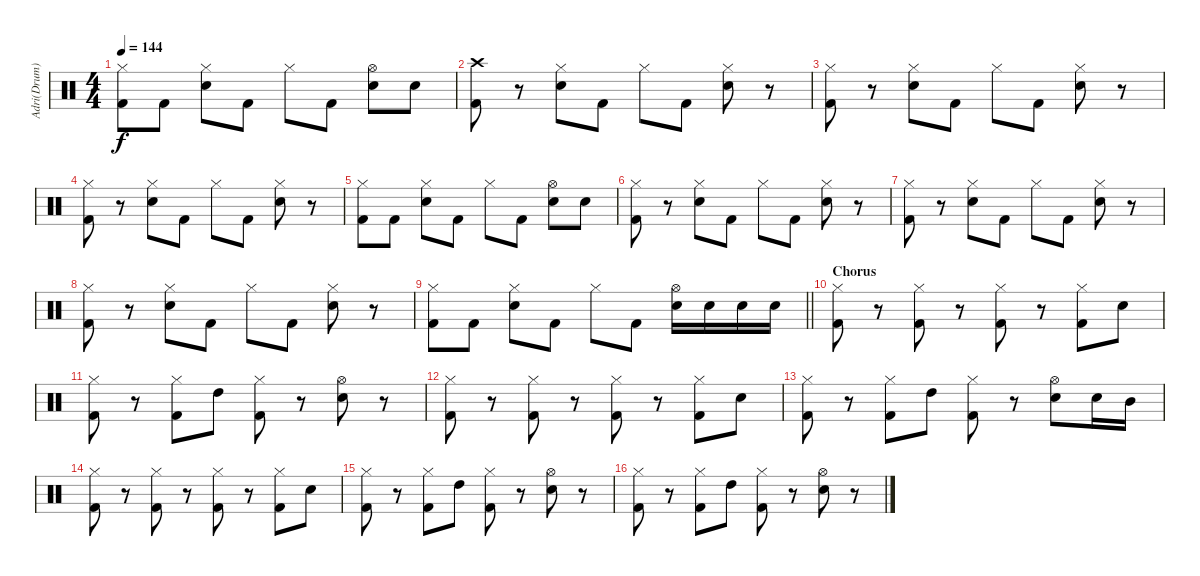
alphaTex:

\track ("Adri(Drum)" "Adri(Drum)") {instrument percussion}
\staff {score}
\articulation defaults
\ts (4 4)
\tempo 144
\clef neutral
\ks c
("Hi-Hat (closed)" "Kick (hit) 2").8{dy f} "Kick (hit) 2".8 ("Hi-Hat (closed)" "Electric Snare (hit)").8 "Kick (hit) 2".8 "Hi-Hat (closed)".8 "Kick (hit) 2".8 ("Hi-Hat (open)" "Electric Snare (hit)").8 "Electric Snare (hit)".8 |
("Crash high (hit)" "Kick (hit) 2").8 r.8 ("Hi-Hat (closed)" "Electric Snare (hit)").8 "Kick (hit) 2".8 "Hi-Hat (closed)".8 "Kick (hit) 2".8 ("Hi-Hat (closed)" "Electric Snare (hit)").8 r.8 |
("Hi-Hat (closed)" "Kick (hit) 2").8 r.8 ("Hi-Hat (closed)" "Electric Snare (hit)").8 "Kick (hit) 2".8 "Hi-Hat (closed)".8 "Kick (hit) 2".8 ("Hi-Hat (closed)" "Electric Snare (hit)").8 r.8 |
("Hi-Hat (closed)" "Kick (hit) 2").8 r.8 ("Hi-Hat (closed)" "Electric Snare (hit)").8 "Kick (hit) 2".8 "Hi-Hat (closed)".8 "Kick (hit) 2".8 ("Hi-Hat (closed)" "Electric Snare (hit)").8 r.8 |
("Hi-Hat (closed)" "Kick (hit) 2").8 "Kick (hit) 2".8 ("Hi-Hat (closed)" "Electric Snare (hit)").8 "Kick (hit) 2".8 "Hi-Hat (closed)".8 "Kick (hit) 2".8 ("Hi-Hat (open)" "Electric Snare (hit)").8 "Electric Snare (hit)".8 |
("Hi-Hat (closed)" "Kick (hit) 2").8 r.8 ("Hi-Hat (closed)" "Electric Snare (hit)").8 "Kick (hit) 2".8 "Hi-Hat (closed)".8 "Kick (hit) 2".8 ("Hi-Hat (closed)" "Electric Snare (hit)").8 r.8 |
("Hi-Hat (closed)" "Kick (hit) 2").8 r.8 ("Hi-Hat (closed)" "Electric Snare (hit)").8 "Kick (hit) 2".8 "Hi-Hat (closed)".8 "Kick (hit) 2".8 ("Hi-Hat (closed)" "Electric Snare (hit)").8 r.8 |
("Hi-Hat (closed)" "Kick (hit) 2").8 r.8 ("Hi-Hat (closed)" "Electric Snare (hit)").8 "Kick (hit) 2".8 "Hi-Hat (closed)".8 "Kick (hit) 2".8 ("Hi-Hat (closed)" "Electric Snare (hit)").8 r.8 |
\barLineRight lightlight
("Hi-Hat (closed)" "Kick (hit) 2").8 "Kick (hit) 2".8 ("Hi-Hat (closed)" "Electric Snare (hit)").8 "Kick (hit) 2".8 "Hi-Hat (closed)".8 "Kick (hit) 2".8 ("Hi-Hat (open)" "Electric Snare (hit)").16 "Electric Snare (hit)".16 "Electric Snare (hit)".16 "Electric Snare (hit)".16 |
\section ("" "Chorus")
("Hi-Hat (closed)" "Kick (hit) 2").8 r.8 ("Hi-Hat (closed)" "Kick (hit) 2").8 r.8 ("Hi-Hat (closed)" "Kick (hit) 2").8 r.8 ("Hi-Hat (closed)" "Kick (hit) 2").8 "Electric Snare (hit)".8 |
("Hi-Hat (closed)" "Kick (hit) 2").8 r.8 ("Hi-Hat (closed)" "Kick (hit) 2").8 "High Tom (hit)".8 ("Hi-Hat (closed)" "Kick (hit) 2").8 r.8 ("Hi-Hat (open)" "Electric Snare (hit)").8 r.8 |
("Hi-Hat (closed)" "Kick (hit) 2").8 r.8 ("Hi-Hat (closed)" "Kick (hit) 2").8 r.8 ("Hi-Hat (closed)" "Kick (hit) 2").8 r.8 ("Hi-Hat (closed)" "Kick (hit) 2").8 "Electric Snare (hit)".8 |
("Hi-Hat (closed)" "Kick (hit) 2").8 r.8 ("Hi-Hat (closed)" "Kick (hit) 2").8 "High Tom (hit)".8 ("Hi-Hat (closed)" "Kick (hit) 2").8 r.8 ("Hi-Hat (open)" "Electric Snare (hit)").8 "Electric Snare (hit)".16 "Mid Tom (hit)".16 |
("Hi-Hat (closed)" "Kick (hit) 2").8 r.8 ("Hi-Hat (closed)" "Kick (hit) 2").8 r.8 ("Hi-Hat (closed)" "Kick (hit) 2").8 r.8 ("Hi-Hat (closed)" "Kick (hit) 2").8 "Electric Snare (hit)".8 |
("Hi-Hat (closed)" "Kick (hit) 2").8 r.8 ("Hi-Hat (closed)" "Kick (hit) 2").8 "High Tom (hit)".8 ("Hi-Hat (closed)" "Kick (hit) 2").8 r.8 ("Hi-Hat (open)" "Electric Snare (hit)").8 r.8 |
("Hi-Hat (closed)" "Kick (hit) 2").8 r.8 ("Hi-Hat (closed)" "Kick (hit) 2").8 "High Tom (hit)".8 ("Hi-Hat (closed)" "Kick (hit) 2").8 r.8 ("Hi-Hat (open)" "Electric Snare (hit)").8 r.8
